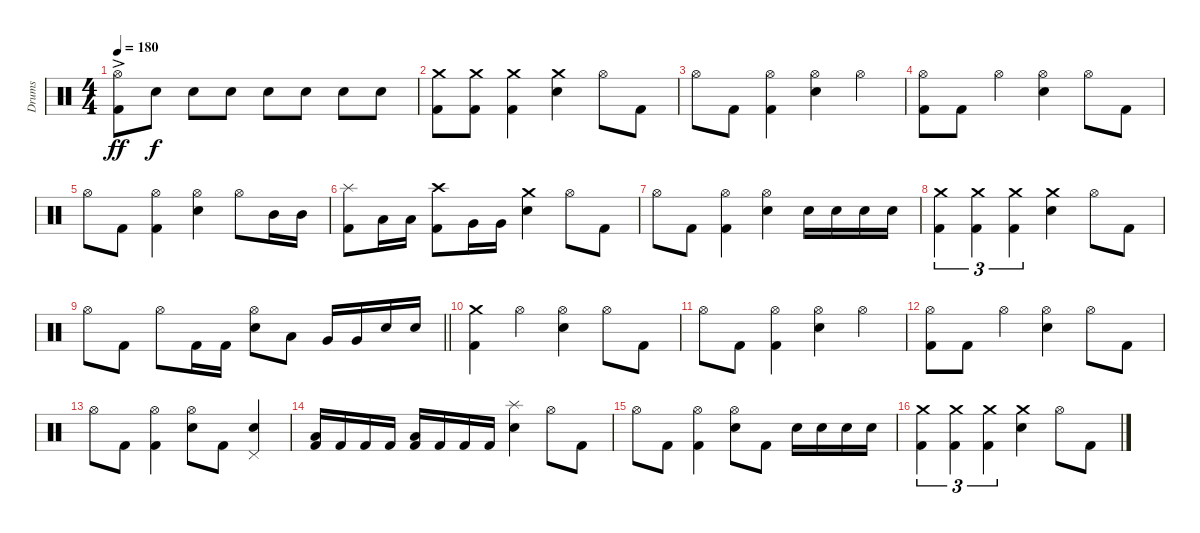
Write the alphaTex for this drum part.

\track ("Drums" "Drums") {instrument percussion}
\staff {score}
\articulation defaults
\ts (4 4)
\tempo 180
\clef neutral
\ks c
("Hi-Hat (open)"{ac} "Kick (hit) 2").8{dy ff} "Electric Snare (hit)".8{dy f} "Electric Snare (hit)".8 "Electric Snare (hit)".8 "Electric Snare (hit)".8 "Electric Snare (hit)".8 "Electric Snare (hit)".8 "Electric Snare (hit)".8 |
("Crash medium (hit)" "Kick (hit) 2").8 ("Crash medium (hit)" "Kick (hit) 2").8 ("Crash medium (hit)" "Kick (hit) 2").4 ("Crash medium (hit)" "Electric Snare (hit)").4 "Hi-Hat (open)".8 "Kick (hit) 2".8 |
"Hi-Hat (open)".8 "Kick (hit) 2".8 ("Hi-Hat (open)" "Kick (hit) 2").4 ("Hi-Hat (open)" "Electric Snare (hit)").4 "Hi-Hat (open)".4 |
("Hi-Hat (open)" "Kick (hit) 2").8 "Kick (hit) 2".8 "Hi-Hat (open)".4 ("Hi-Hat (open)" "Electric Snare (hit)").4 "Hi-Hat (open)".8 "Kick (hit) 2".8 |
"Hi-Hat (open)".8 "Kick (hit) 2".8 ("Hi-Hat (open)" "Kick (hit) 2").4 ("Hi-Hat (open)" "Electric Snare (hit)").4 "Hi-Hat (open)".8 "Mid Tom (hit)".16 "Mid Tom (hit)".16 |
("Splash (hit)" "Kick (hit) 2").8 "Low Tom (hit)".16 "Low Tom (hit)".16 ("Crash high (hit)" "Kick (hit) 2").8 "Very Low Tom (hit)".16 "Very Low Tom (hit)".16 ("Crash medium (hit)" "Electric Snare (hit)").4 "Hi-Hat (open)".8 "Kick (hit) 2".8 |
"Hi-Hat (open)".8 "Kick (hit) 2".8 ("Hi-Hat (open)" "Kick (hit) 2").4 ("Hi-Hat (open)" "Electric Snare (hit)").4 "Electric Snare (hit)".16 "Electric Snare (hit)".16 "Electric Snare (hit)".16 "Electric Snare (hit)".16 |
("Crash medium (hit)" "Kick (hit) 2").4{tu (3 2)} ("Crash medium (hit)" "Kick (hit) 2").4{tu (3 2)} ("Crash medium (hit)" "Kick (hit) 2").4{tu (3 2)} ("Crash medium (hit)" "Electric Snare (hit)").4 "Hi-Hat (open)".8 "Kick (hit) 2".8 |
\barLineRight lightlight "Hi-Hat (open)".8 "Kick (hit) 2".8 "Hi-Hat (open)".8 "Kick (hit) 2".16 "Kick (hit) 2".16
("Hi-Hat (open)" "Electric Snare (hit)").8 "Low Tom (hit)".8 "Very Low Tom (hit)".16 "Very Low Tom (hit)".16 "Electric Snare (hit)".16 "Electric Snare (hit)".16 |
("Crash medium (hit)" "Kick (hit) 2").4 "Hi-Hat (open)".4 ("Hi-Hat (open)" "Electric Snare (hit)").4 "Hi-Hat (open)".8 "Kick (hit) 2".8 |
"Hi-Hat (open)".8 "Kick (hit) 2".8 ("Hi-Hat (open)" "Kick (hit) 2").4 ("Hi-Hat (open)" "Electric Snare (hit)").4 "Hi-Hat (open)".4 |
("Hi-Hat (open)" "Kick (hit) 2").8 "Kick (hit) 2".8 "Hi-Hat (open)".4 ("Hi-Hat (open)" "Electric Snare (hit)").4 "Hi-Hat (open)".8 "Kick (hit) 2".8 |
"Hi-Hat (open)".8 "Kick (hit) 2".8 ("Hi-Hat (open)" "Kick (hit) 2").4 ("Hi-Hat (open)" "Electric Snare (hit)").8 "Kick (hit) 2".8 ("Pedal Hi-Hat (hit)" "Electric Snare (hit)").4 |
("Low Tom (hit)" "Kick (hit) 2").16 "Kick (hit) 2".16 "Kick (hit) 2".16 "Kick (hit) 2".16 ("Low Tom (hit)" "Kick (hit) 2").16 "Kick (hit) 2".16 "Kick (hit) 2".16 "Kick (hit) 2".16 ("Splash (hit)" "Electric Snare (hit)").4 "Hi-Hat (open)".8 "Kick (hit) 2".8 |
"Hi-Hat (open)".8 "Kick (hit) 2".8 ("Hi-Hat (open)" "Kick (hit) 2").4 ("Hi-Hat (open)" "Electric Snare (hit)").8 "Kick (hit) 2".8 "Electric Snare (hit)".16 "Electric Snare (hit)".16 "Electric Snare (hit)".16 "Electric Snare (hit)".16 |
("Crash medium (hit)" "Kick (hit) 2").4{tu (3 2)} ("Crash medium (hit)" "Kick (hit) 2").4{tu (3 2)} ("Crash medium (hit)" "Kick (hit) 2").4{tu (3 2)} ("Crash medium (hit)" "Electric Snare (hit)").4 "Hi-Hat (open)".8 "Kick (hit) 2".8
